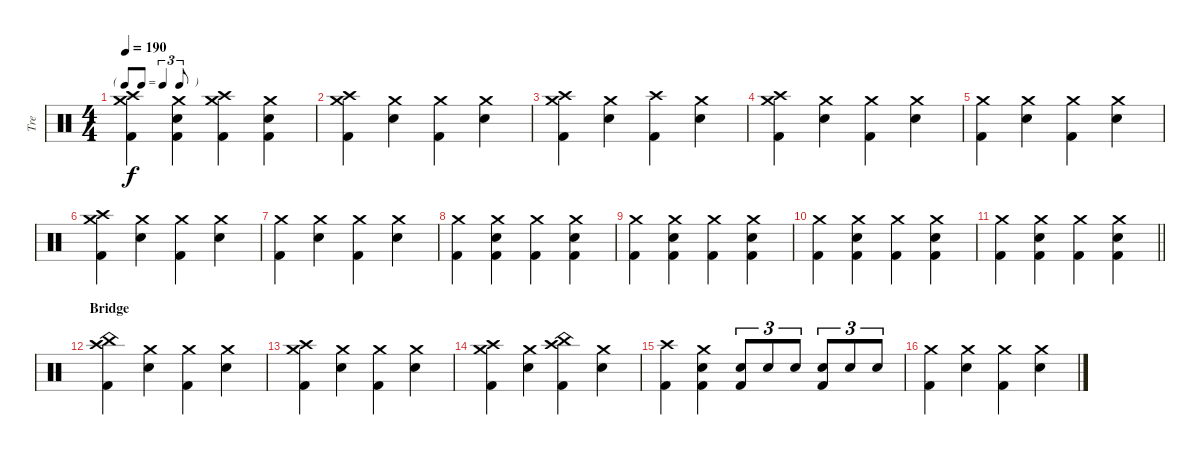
\track ("Tre" "Tre") {instrument percussion}
\staff {score}
\articulation defaults
\ts (4 4)
\tf triplet8th
\tempo 190
\clef neutral
\ks c
("Crash medium (hit)" "Crash high (hit)" "Kick (hit) 2").4{dy f} ("Crash medium (hit)" "Snare (hit) 2" "Kick (hit) 2").4 ("Crash medium (hit)" "Crash high (hit)" "Kick (hit) 2").4 ("Crash medium (hit)" "Snare (hit) 2" "Kick (hit) 2").4 |
("Crash medium (hit)" "Crash high (hit)" "Kick (hit) 2").4 ("Crash medium (hit)" "Snare (hit) 2").4 ("Crash medium (hit)" "Kick (hit) 2").4 ("Crash medium (hit)" "Snare (hit) 2").4 |
("Crash medium (hit)" "Crash high (hit)" "Kick (hit) 2").4 ("Crash medium (hit)" "Snare (hit) 2").4 ("Crash high (hit)" "Kick (hit) 2").4 ("Crash medium (hit)" "Snare (hit) 2").4 |
("Crash medium (hit)" "Crash high (hit)" "Kick (hit) 2").4 ("Crash medium (hit)" "Snare (hit) 2").4 ("Crash medium (hit)" "Kick (hit) 2").4 ("Crash medium (hit)" "Snare (hit) 2").4 |
("Crash medium (hit)" "Kick (hit) 2").4 ("Crash medium (hit)" "Snare (hit) 2").4 ("Crash medium (hit)" "Kick (hit) 2").4 ("Crash medium (hit)" "Snare (hit) 2").4 |
("Crash medium (hit)" "Crash high (hit)" "Kick (hit) 2").4 ("Crash medium (hit)" "Snare (hit) 2").4 ("Crash medium (hit)" "Kick (hit) 2").4 ("Crash medium (hit)" "Snare (hit) 2").4 |
("Crash medium (hit)" "Kick (hit) 2").4 ("Crash medium (hit)" "Snare (hit) 2").4 ("Crash medium (hit)" "Kick (hit) 2").4 ("Crash medium (hit)" "Snare (hit) 2").4 |
("Crash medium (hit)" "Kick (hit) 2").4 ("Crash medium (hit)" "Snare (hit) 2" "Kick (hit) 2").4 ("Crash medium (hit)" "Kick (hit) 2").4 ("Crash medium (hit)" "Snare (hit) 2" "Kick (hit) 2").4 |
("Crash medium (hit)" "Kick (hit) 2").4 ("Crash medium (hit)" "Snare (hit) 2" "Kick (hit) 2").4 ("Crash medium (hit)" "Kick (hit) 2").4 ("Crash medium (hit)" "Snare (hit) 2" "Kick (hit) 2").4 |
("Crash medium (hit)" "Kick (hit) 2").4 ("Crash medium (hit)" "Snare (hit) 2" "Kick (hit) 2").4 ("Crash medium (hit)" "Kick (hit) 2").4 ("Crash medium (hit)" "Snare (hit) 2" "Kick (hit) 2").4 |
\barLineRight lightlight
("Crash medium (hit)" "Kick (hit) 2").4 ("Crash medium (hit)" "Snare (hit) 2" "Kick (hit) 2").4 ("Crash medium (hit)" "Kick (hit) 2").4 ("Crash medium (hit)" "Snare (hit) 2" "Kick (hit) 2").4 |
\section ("" "Bridge")
("China (hit)" "Crash high (hit)" "Kick (hit) 2").4 ("Crash medium (hit)" "Snare (hit) 2").4 ("Crash medium (hit)" "Kick (hit) 2").4 ("Crash medium (hit)" "Snare (hit) 2").4 |
("Crash medium (hit)" "Crash high (hit)" "Kick (hit) 2").4 ("Crash medium (hit)" "Snare (hit) 2").4 ("Crash medium (hit)" "Kick (hit) 2").4 ("Crash medium (hit)" "Snare (hit) 2").4 |
("Crash medium (hit)" "Crash high (hit)" "Kick (hit) 2").4 ("Crash medium (hit)" "Snare (hit) 2").4 ("Crash high (hit)" "China (hit)" "Kick (hit) 2").4 ("Crash medium (hit)" "Snare (hit) 2").4 |
("Crash high (hit)" "Kick (hit) 2").4 ("Crash medium (hit)" "Snare (hit) 2" "Kick (hit) 2").4 ("Snare (hit) 2" "Kick (hit) 2").8{tu (3 2)} "Snare (hit) 2".8{tu (3 2)} "Snare (hit) 2".8{tu (3 2)} ("Snare (hit) 2" "Kick (hit) 2").8{tu (3 2)} "Snare (hit) 2".8{tu (3 2)} "Snare (hit) 2".8{tu (3 2)} |
("Crash medium (hit)" "Kick (hit) 2").4 ("Crash medium (hit)" "Snare (hit) 2").4 ("Crash medium (hit)" "Kick (hit) 2").4 ("Crash medium (hit)" "Snare (hit) 2").4
